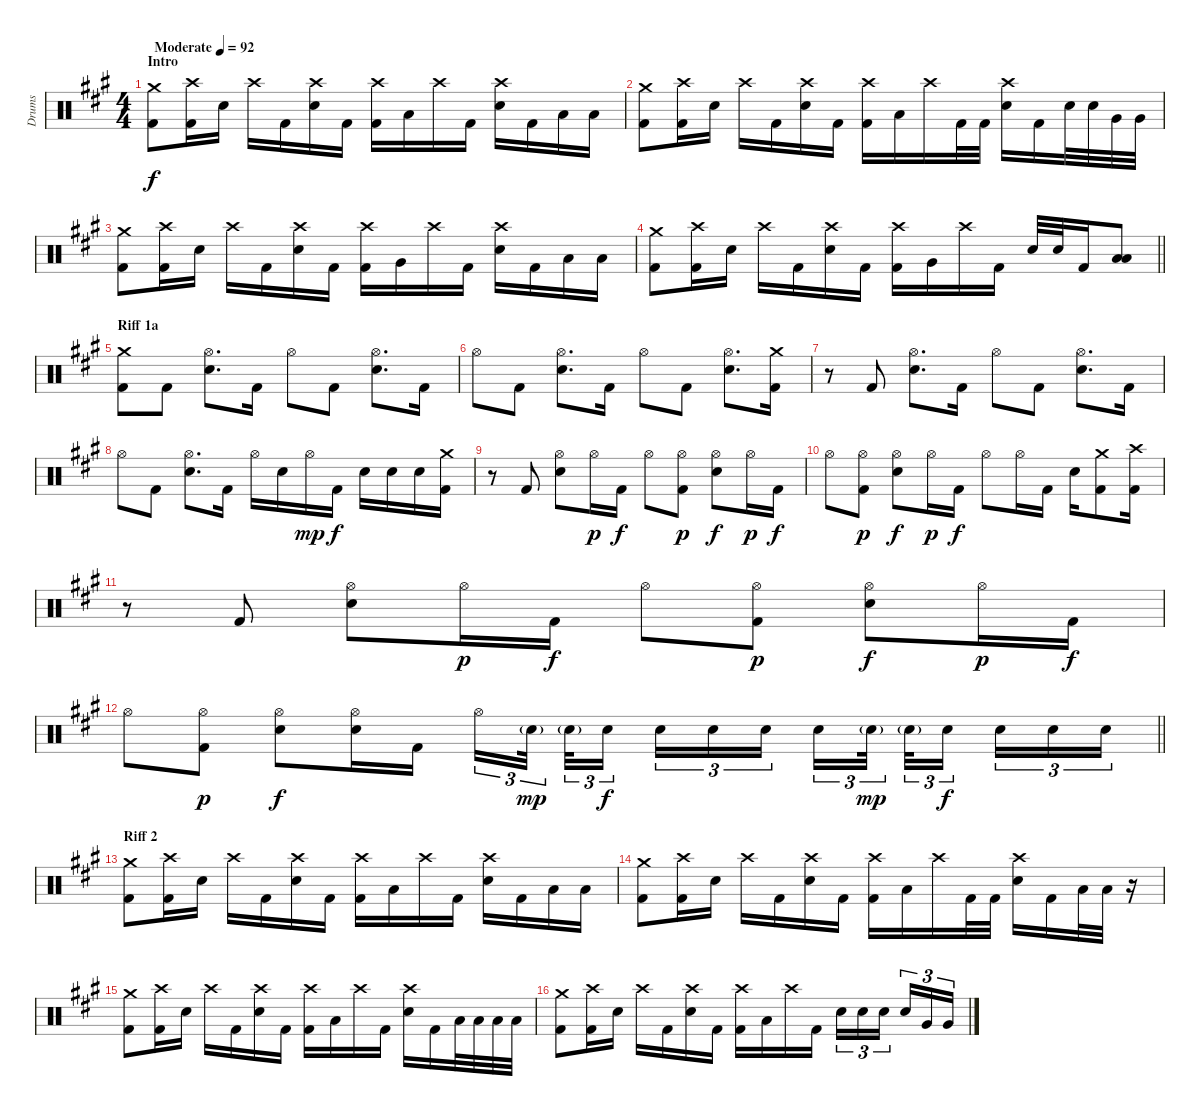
\track ("Drums" "Drums") {instrument percussion}
\staff {score}
\articulation defaults
\ts (4 4)
\section ("" "Intro")
\tempo (92 "Moderate")
\clef neutral
\ks a
("Crash medium (hit)" "Kick (hit) 2").8{dy f} ("Kick (hit) 2" "Crash high (hit)").16 "Electric Snare (hit)".16 "Crash high (hit)".16 "Kick (hit) 2".16 ("Electric Snare (hit)" "Crash high (hit)").16 "Kick (hit) 2".16 ("Crash high (hit)" "Kick (hit) 2").16 "Low Tom (hit)".16 "Crash high (hit)".16 "Kick (hit) 2".16 ("Electric Snare (hit)" "Crash high (hit)").16 "Kick (hit) 2".16 "Low Tom (hit)".16 "Low Floor Tom (hit)".16 |
("Crash medium (hit)" "Kick (hit) 2").8 ("Kick (hit) 2" "Crash high (hit)").16 "Electric Snare (hit)".16 "Crash high (hit)".16 "Kick (hit) 2".16 ("Electric Snare (hit)" "Crash high (hit)").16 "Kick (hit) 2".16 ("Crash high (hit)" "Kick (hit) 2").16 "Low Tom (hit)".16 "Crash high (hit)".16 "Kick (hit) 2".32 "Kick (hit) 2".32 ("Electric Snare (hit)" "Crash high (hit)").16 "Kick (hit) 2".16 "Electric Snare (hit)".32 "Electric Snare (hit)".32 "Very Low Tom (hit)".32 "Very Low Tom (hit)".32 |
("Crash medium (hit)" "Kick (hit) 2").8 ("Kick (hit) 2" "Crash high (hit)").16 "Electric Snare (hit)".16 "Crash high (hit)".16 "Kick (hit) 2".16 ("Electric Snare (hit)" "Crash high (hit)").16 "Kick (hit) 2".16 ("Crash high (hit)" "Kick (hit) 2").16 "Very Low Tom (hit)".16 "Crash high (hit)".16 "Kick (hit) 2".16 ("Electric Snare (hit)" "Crash high (hit)").16 "Kick (hit) 2".16 "Low Floor Tom (hit)".16 "Low Floor Tom (hit)".16 |
\barLineRight lightlight
("Crash medium (hit)" "Kick (hit) 2").8 ("Kick (hit) 2" "Crash high (hit)").16 "Electric Snare (hit)".16 "Crash high (hit)".16 "Kick (hit) 2".16 ("Electric Snare (hit)" "Crash high (hit)").16 "Kick (hit) 2".16 ("Crash high (hit)" "Kick (hit) 2").16 "Very Low Tom (hit)".16 "Crash high (hit)".16 "Kick (hit) 2".16 "Electric Snare (hit)".32 "Electric Snare (hit)".32 "Kick (hit) 2".16 ("Low Tom (hit)" "Low Floor Tom (hit)").8 |
\section ("" "Riff 1a")
("Crash medium (hit)" "Kick (hit) 2").8 "Kick (hit) 2".8 ("Electric Snare (hit)" "Hi-Hat (open)").8{d} "Kick (hit) 2".16 "Hi-Hat (open)".8 "Kick (hit) 2".8 ("Electric Snare (hit)" "Hi-Hat (open)").8{d} "Kick (hit) 2".16 |
"Hi-Hat (open)".8 "Kick (hit) 2".8 ("Electric Snare (hit)" "Hi-Hat (open)").8{d} "Kick (hit) 2".16 "Hi-Hat (open)".8 "Kick (hit) 2".8 ("Electric Snare (hit)" "Hi-Hat (open)").8{d} ("Kick (hit) 2" "Crash medium (hit)").16 |
r.8 "Kick (hit) 2".8 ("Electric Snare (hit)" "Hi-Hat (open)").8{d} "Kick (hit) 2".16 "Hi-Hat (open)".8 "Kick (hit) 2".8 ("Electric Snare (hit)" "Hi-Hat (open)").8{d} "Kick (hit) 2".16 |
"Hi-Hat (open)".8 "Kick (hit) 2".8 ("Electric Snare (hit)" "Hi-Hat (open)").8{d} "Kick (hit) 2".16 "Hi-Hat (open)".16 "Electric Snare (hit)".16 "Hi-Hat (open)".16{dy mp} "Kick (hit) 2".16{dy f} "Electric Snare (hit)".16 "Electric Snare (hit)".16 "Electric Snare (hit)".16 ("Kick (hit) 2" "Crash medium (hit)").16 |
r.8 "Kick (hit) 2".8 ("Electric Snare (hit)" "Hi-Hat (open)").8 "Hi-Hat (open)".16{dy p} "Kick (hit) 2".16{dy f} "Hi-Hat (open)".8 ("Kick (hit) 2" "Hi-Hat (open)").8{dy p} ("Electric Snare (hit)" "Hi-Hat (open)").8{dy f} "Hi-Hat (open)".16{dy p} "Kick (hit) 2".16{dy f} |
"Hi-Hat (open)".8 ("Kick (hit) 2" "Hi-Hat (open)").8{dy p} ("Electric Snare (hit)" "Hi-Hat (open)").8{dy f} "Hi-Hat (open)".16{dy p} "Kick (hit) 2".16{dy f} "Hi-Hat (open)".8 "Hi-Hat (open)".16 "Kick (hit) 2".16 "Electric Snare (hit)".16 ("Kick (hit) 2" "Crash medium (hit)").8 ("Kick (hit) 2" "Crash high (hit)").16 |
r.8 "Kick (hit) 2".8 ("Electric Snare (hit)" "Hi-Hat (open)").8 "Hi-Hat (open)".16{dy p} "Kick (hit) 2".16{dy f} "Hi-Hat (open)".8 ("Kick (hit) 2" "Hi-Hat (open)").8{dy p} ("Electric Snare (hit)" "Hi-Hat (open)").8{dy f} "Hi-Hat (open)".16{dy p} "Kick (hit) 2".16{dy f} |
\barLineRight lightlight "Hi-Hat (open)".8
("Kick (hit) 2" "Hi-Hat (open)").8{dy p} ("Electric Snare (hit)" "Hi-Hat (open)").8{dy f} ("Electric Snare (hit)" "Hi-Hat (open)").16 "Kick (hit) 2".16 "Hi-Hat (open)".16{tu (3 2)} "Electric Snare (hit)"{g}.32{tu (3 2) dy mp beam splitsecondary} "Electric Snare (hit)"{g}.32{tu (3 2)} "Electric Snare (hit)".16{tu (3 2) dy f beam splitsecondary} "Electric Snare (hit)".16{tu (3 2)} "Electric Snare (hit)".16{tu (3 2)} "Electric Snare (hit)".16{tu (3 2)} "Electric Snare (hit)".16{tu (3 2)} "Electric Snare (hit)"{g}.32{tu (3 2) dy mp beam splitsecondary} "Electric Snare (hit)"{g}.32{tu (3 2)} "Electric Snare (hit)".16{tu (3 2) dy f beam splitsecondary} "Electric Snare (hit)".16{tu (3 2)} "Electric Snare (hit)".16{tu (3 2)} "Electric Snare (hit)".16{tu (3 2)} |
\section ("" "Riff 2")
("Crash medium (hit)" "Kick (hit) 2").8 ("Kick (hit) 2" "Crash high (hit)").16 "Electric Snare (hit)".16 "Crash high (hit)".16 "Kick (hit) 2".16 ("Electric Snare (hit)" "Crash high (hit)").16 "Kick (hit) 2".16 ("Crash high (hit)" "Kick (hit) 2").16 "Low Tom (hit)".16 "Crash high (hit)".16 "Kick (hit) 2".16 ("Electric Snare (hit)" "Crash high (hit)").16 "Kick (hit) 2".16 "Low Tom (hit)".16 "Low Floor Tom (hit)".16 |
("Crash medium (hit)" "Kick (hit) 2").8 ("Kick (hit) 2" "Crash high (hit)").16 "Electric Snare (hit)".16 "Crash high (hit)".16 "Kick (hit) 2".16 ("Electric Snare (hit)" "Crash high (hit)").16 "Kick (hit) 2".16 ("Crash high (hit)" "Kick (hit) 2").16 "Low Tom (hit)".16 "Crash high (hit)".16 "Kick (hit) 2".32 "Kick (hit) 2".32 ("Electric Snare (hit)" "Crash high (hit)").16 "Kick (hit) 2".16 "Low Floor Tom (hit)".32 "Low Floor Tom (hit)".32 r.16 |
("Crash medium (hit)" "Kick (hit) 2").8 ("Kick (hit) 2" "Crash high (hit)").16 "Electric Snare (hit)".16 "Crash high (hit)".16 "Kick (hit) 2".16 ("Electric Snare (hit)" "Crash high (hit)").16 "Kick (hit) 2".16 ("Crash high (hit)" "Kick (hit) 2").16 "Low Tom (hit)".16 "Crash high (hit)".16 "Kick (hit) 2".16 ("Electric Snare (hit)" "Crash high (hit)").16 "Kick (hit) 2".16 "Low Floor Tom (hit)".32 "Low Floor Tom (hit)".32 "Low Floor Tom (hit)".32 "Low Floor Tom (hit)".32 |
("Crash medium (hit)" "Kick (hit) 2").8 ("Kick (hit) 2" "Crash high (hit)").16 "Electric Snare (hit)".16 "Crash high (hit)".16 "Kick (hit) 2".16 ("Electric Snare (hit)" "Crash high (hit)").16 "Kick (hit) 2".16 ("Crash high (hit)" "Kick (hit) 2").16 "Low Tom (hit)".16 "Crash high (hit)".16 "Kick (hit) 2".16 "Electric Snare (hit)".16{tu (3 2)} "Electric Snare (hit)".16{tu (3 2)} "Electric Snare (hit)".16{tu (3 2) beam splitsecondary} "Electric Snare (hit)".16{tu (3 2)} "Very Low Tom (hit)".16{tu (3 2)} "Very Low Tom (hit)".16{tu (3 2)}
